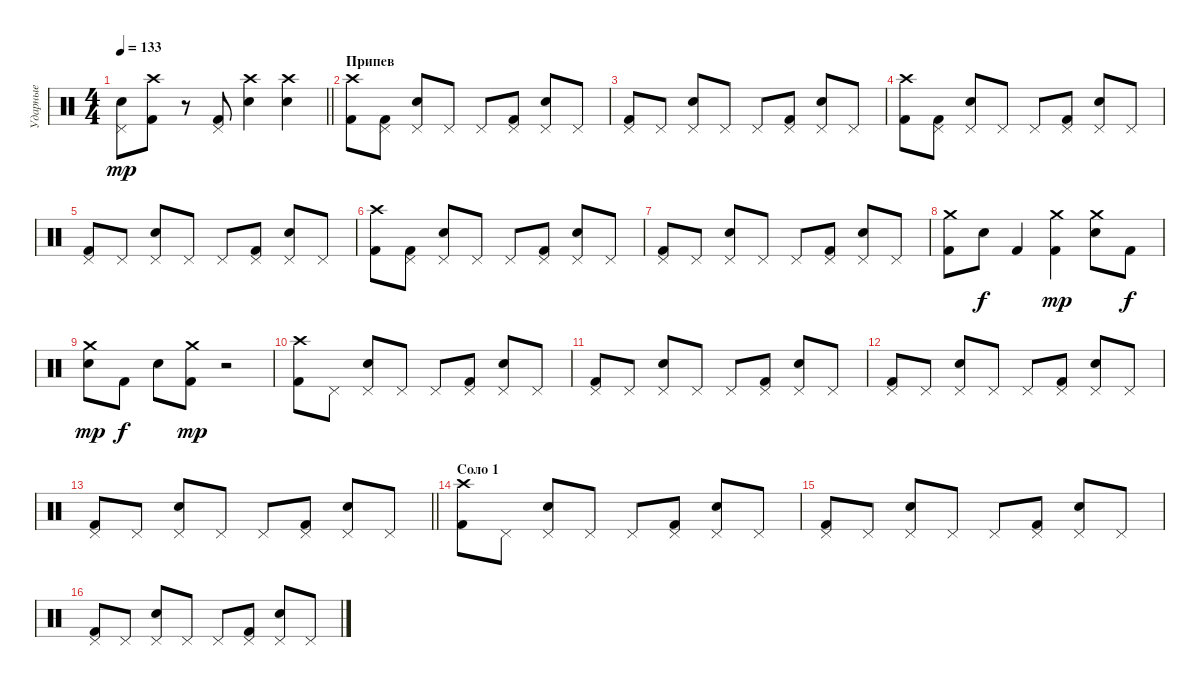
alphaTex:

\track ("Ударные" "Ударные") {instrument percussion}
\staff {score}
\articulation defaults
\ts (4 4)
\tempo 133
\clef neutral
\barLineRight lightlight
\ks c
("Electric Snare (hit)" "Pedal Hi-Hat (hit)").8{dy mp} ("Kick (hit) 2" "Crash high (hit)").8 r.8 ("Kick (hit) 2" "Pedal Hi-Hat (hit)").8 ("Electric Snare (hit)" "Crash high (hit)").4 ("Electric Snare (hit)" "Crash high (hit)").4 |
\section ("" "Припев")
("Kick (hit) 2" "Crash high (hit)").8 ("Kick (hit) 2" "Pedal Hi-Hat (hit)").8 ("Electric Snare (hit)" "Pedal Hi-Hat (hit)").8 "Pedal Hi-Hat (hit)".8 "Pedal Hi-Hat (hit)".8 ("Kick (hit) 2" "Pedal Hi-Hat (hit)").8 ("Electric Snare (hit)" "Pedal Hi-Hat (hit)").8 "Pedal Hi-Hat (hit)".8 |
("Kick (hit) 2" "Pedal Hi-Hat (hit)").8 "Pedal Hi-Hat (hit)".8 ("Electric Snare (hit)" "Pedal Hi-Hat (hit)").8 "Pedal Hi-Hat (hit)".8 "Pedal Hi-Hat (hit)".8 ("Kick (hit) 2" "Pedal Hi-Hat (hit)").8 ("Electric Snare (hit)" "Pedal Hi-Hat (hit)").8 "Pedal Hi-Hat (hit)".8 |
("Kick (hit) 2" "Crash high (hit)").8 ("Kick (hit) 2" "Pedal Hi-Hat (hit)").8 ("Electric Snare (hit)" "Pedal Hi-Hat (hit)").8 "Pedal Hi-Hat (hit)".8 "Pedal Hi-Hat (hit)".8 ("Kick (hit) 2" "Pedal Hi-Hat (hit)").8 ("Electric Snare (hit)" "Pedal Hi-Hat (hit)").8 "Pedal Hi-Hat (hit)".8 |
("Kick (hit) 2" "Pedal Hi-Hat (hit)").8 "Pedal Hi-Hat (hit)".8 ("Electric Snare (hit)" "Pedal Hi-Hat (hit)").8 "Pedal Hi-Hat (hit)".8 "Pedal Hi-Hat (hit)".8 ("Kick (hit) 2" "Pedal Hi-Hat (hit)").8 ("Electric Snare (hit)" "Pedal Hi-Hat (hit)").8 "Pedal Hi-Hat (hit)".8 |
("Kick (hit) 2" "Crash high (hit)").8 ("Kick (hit) 2" "Pedal Hi-Hat (hit)").8 ("Electric Snare (hit)" "Pedal Hi-Hat (hit)").8 "Pedal Hi-Hat (hit)".8 "Pedal Hi-Hat (hit)".8 ("Kick (hit) 2" "Pedal Hi-Hat (hit)").8 ("Electric Snare (hit)" "Pedal Hi-Hat (hit)").8 "Pedal Hi-Hat (hit)".8 |
("Kick (hit) 2" "Pedal Hi-Hat (hit)").8 "Pedal Hi-Hat (hit)".8 ("Electric Snare (hit)" "Pedal Hi-Hat (hit)").8 "Pedal Hi-Hat (hit)".8 "Pedal Hi-Hat (hit)".8 ("Kick (hit) 2" "Pedal Hi-Hat (hit)").8 ("Electric Snare (hit)" "Pedal Hi-Hat (hit)").8 "Pedal Hi-Hat (hit)".8 |
("Kick (hit) 2" "Crash medium (hit)").8 "Electric Snare (hit)".8{dy f} "Kick (hit) 2".4 ("Kick (hit) 2" "Crash medium (hit)").4{dy mp} ("Electric Snare (hit)" "Crash medium (hit)").8 "Kick (hit) 2".8{dy f} |
("Electric Snare (hit)" "Crash medium (hit)").8{dy mp} "Kick (hit) 2".8{dy f} "Electric Snare (hit)".8 ("Kick (hit) 2" "Crash medium (hit)").8{dy mp} r.2 |
("Kick (hit) 2" "Crash high (hit)").8 "Pedal Hi-Hat (hit)".8 ("Electric Snare (hit)" "Pedal Hi-Hat (hit)").8 "Pedal Hi-Hat (hit)".8 "Pedal Hi-Hat (hit)".8 ("Kick (hit) 2" "Pedal Hi-Hat (hit)").8 ("Electric Snare (hit)" "Pedal Hi-Hat (hit)").8 "Pedal Hi-Hat (hit)".8 |
("Kick (hit) 2" "Pedal Hi-Hat (hit)").8 "Pedal Hi-Hat (hit)".8 ("Electric Snare (hit)" "Pedal Hi-Hat (hit)").8 "Pedal Hi-Hat (hit)".8 "Pedal Hi-Hat (hit)".8 ("Kick (hit) 2" "Pedal Hi-Hat (hit)").8 ("Electric Snare (hit)" "Pedal Hi-Hat (hit)").8 "Pedal Hi-Hat (hit)".8 |
("Kick (hit) 2" "Pedal Hi-Hat (hit)").8 "Pedal Hi-Hat (hit)".8 ("Electric Snare (hit)" "Pedal Hi-Hat (hit)").8 "Pedal Hi-Hat (hit)".8 "Pedal Hi-Hat (hit)".8 ("Kick (hit) 2" "Pedal Hi-Hat (hit)").8 ("Electric Snare (hit)" "Pedal Hi-Hat (hit)").8 "Pedal Hi-Hat (hit)".8 |
\barLineRight lightlight
("Kick (hit) 2" "Pedal Hi-Hat (hit)").8 "Pedal Hi-Hat (hit)".8 ("Electric Snare (hit)" "Pedal Hi-Hat (hit)").8 "Pedal Hi-Hat (hit)".8 "Pedal Hi-Hat (hit)".8 ("Kick (hit) 2" "Pedal Hi-Hat (hit)").8 ("Electric Snare (hit)" "Pedal Hi-Hat (hit)").8 "Pedal Hi-Hat (hit)".8 |
\section ("" "Соло 1")
("Kick (hit) 2" "Crash high (hit)").8 "Pedal Hi-Hat (hit)".8 ("Electric Snare (hit)" "Pedal Hi-Hat (hit)").8 "Pedal Hi-Hat (hit)".8 "Pedal Hi-Hat (hit)".8 ("Kick (hit) 2" "Pedal Hi-Hat (hit)").8 ("Electric Snare (hit)" "Pedal Hi-Hat (hit)").8 "Pedal Hi-Hat (hit)".8 |
("Kick (hit) 2" "Pedal Hi-Hat (hit)").8 "Pedal Hi-Hat (hit)".8 ("Electric Snare (hit)" "Pedal Hi-Hat (hit)").8 "Pedal Hi-Hat (hit)".8 "Pedal Hi-Hat (hit)".8 ("Kick (hit) 2" "Pedal Hi-Hat (hit)").8 ("Electric Snare (hit)" "Pedal Hi-Hat (hit)").8 "Pedal Hi-Hat (hit)".8 |
("Kick (hit) 2" "Pedal Hi-Hat (hit)").8 "Pedal Hi-Hat (hit)".8 ("Electric Snare (hit)" "Pedal Hi-Hat (hit)").8 "Pedal Hi-Hat (hit)".8 "Pedal Hi-Hat (hit)".8 ("Kick (hit) 2" "Pedal Hi-Hat (hit)").8 ("Electric Snare (hit)" "Pedal Hi-Hat (hit)").8 "Pedal Hi-Hat (hit)".8
